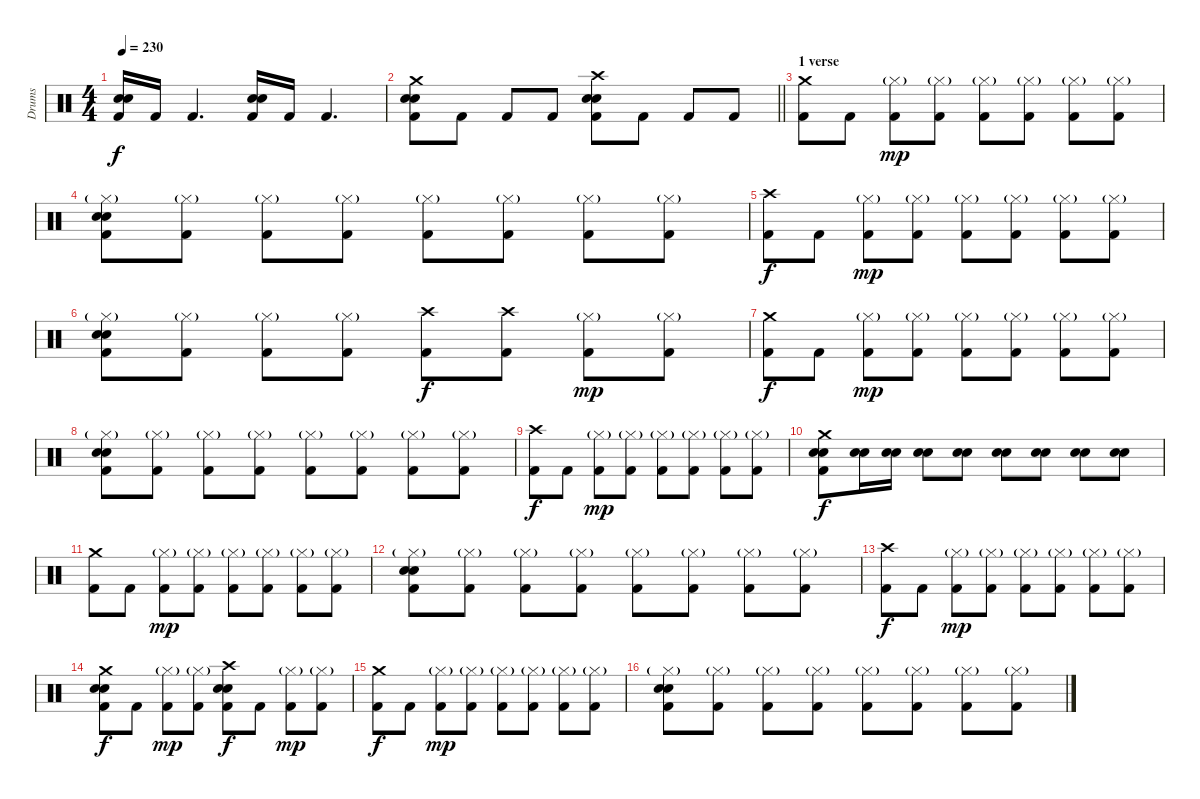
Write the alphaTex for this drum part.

\track ("Drums" "Drums") {instrument percussion}
\staff {score}
\articulation defaults
\ts (4 4)
\tempo 230
\clef neutral
\ks c
("Electric Snare (hit)" "Electric Snare (hit)" "Kick (hit) 2").16{dy f} "Kick (hit) 2".16 "Kick (hit) 2".4{d} ("Electric Snare (hit)" "Electric Snare (hit)" "Kick (hit) 2").16 "Kick (hit) 2".16 "Kick (hit) 2".4{d} |
\barLineRight lightlight
("Crash medium (hit)" "Electric Snare (hit)" "Electric Snare (hit)" "Kick (hit) 2").8 "Kick (hit) 2".8 "Kick (hit) 2".8 "Kick (hit) 2".8 ("Crash high (hit)" "Electric Snare (hit)" "Electric Snare (hit)" "Kick (hit) 2").8 "Kick (hit) 2".8 "Kick (hit) 2".8 "Kick (hit) 2".8 |
\section ("" "1 verse")
("Crash medium (hit)" "Kick (hit) 2").8 "Kick (hit) 2".8 ("Hi-Hat (closed)"{g} "Kick (hit) 2").8{dy mp} ("Hi-Hat (closed)"{g} "Kick (hit) 2").8 ("Hi-Hat (closed)"{g} "Kick (hit) 2").8 ("Hi-Hat (closed)"{g} "Kick (hit) 2").8 ("Hi-Hat (closed)"{g} "Kick (hit) 2").8 ("Hi-Hat (closed)"{g} "Kick (hit) 2").8 |
("Hi-Hat (closed)"{g} "Electric Snare (hit)" "Electric Snare (hit)" "Kick (hit) 2").8 ("Hi-Hat (closed)"{g} "Kick (hit) 2").8 ("Hi-Hat (closed)"{g} "Kick (hit) 2").8 ("Hi-Hat (closed)"{g} "Kick (hit) 2").8 ("Hi-Hat (closed)"{g} "Kick (hit) 2").8 ("Hi-Hat (closed)"{g} "Kick (hit) 2").8 ("Hi-Hat (closed)"{g} "Kick (hit) 2").8 ("Hi-Hat (closed)"{g} "Kick (hit) 2").8 |
("Crash high (hit)" "Kick (hit) 2").8{dy f} "Kick (hit) 2".8 ("Hi-Hat (closed)"{g} "Kick (hit) 2").8{dy mp} ("Hi-Hat (closed)"{g} "Kick (hit) 2").8 ("Hi-Hat (closed)"{g} "Kick (hit) 2").8 ("Hi-Hat (closed)"{g} "Kick (hit) 2").8 ("Hi-Hat (closed)"{g} "Kick (hit) 2").8 ("Hi-Hat (closed)"{g} "Kick (hit) 2").8 |
("Hi-Hat (closed)"{g} "Electric Snare (hit)" "Electric Snare (hit)" "Kick (hit) 2").8 ("Hi-Hat (closed)"{g} "Kick (hit) 2").8 ("Hi-Hat (closed)"{g} "Kick (hit) 2").8 ("Hi-Hat (closed)"{g} "Kick (hit) 2").8 ("Crash high (hit)" "Kick (hit) 2").8{dy f} ("Crash high (hit)" "Kick (hit) 2").8 ("Hi-Hat (closed)"{g} "Kick (hit) 2").8{dy mp} ("Hi-Hat (closed)"{g} "Kick (hit) 2").8 |
("Crash medium (hit)" "Kick (hit) 2").8{dy f} "Kick (hit) 2".8 ("Hi-Hat (closed)"{g} "Kick (hit) 2").8{dy mp} ("Hi-Hat (closed)"{g} "Kick (hit) 2").8 ("Hi-Hat (closed)"{g} "Kick (hit) 2").8 ("Hi-Hat (closed)"{g} "Kick (hit) 2").8 ("Hi-Hat (closed)"{g} "Kick (hit) 2").8 ("Hi-Hat (closed)"{g} "Kick (hit) 2").8 |
("Hi-Hat (closed)"{g} "Electric Snare (hit)" "Electric Snare (hit)" "Kick (hit) 2").8 ("Hi-Hat (closed)"{g} "Kick (hit) 2").8 ("Hi-Hat (closed)"{g} "Kick (hit) 2").8 ("Hi-Hat (closed)"{g} "Kick (hit) 2").8 ("Hi-Hat (closed)"{g} "Kick (hit) 2").8 ("Hi-Hat (closed)"{g} "Kick (hit) 2").8 ("Hi-Hat (closed)"{g} "Kick (hit) 2").8 ("Hi-Hat (closed)"{g} "Kick (hit) 2").8 |
("Crash high (hit)" "Kick (hit) 2").8{dy f} "Kick (hit) 2".8 ("Hi-Hat (closed)"{g} "Kick (hit) 2").8{dy mp} ("Hi-Hat (closed)"{g} "Kick (hit) 2").8 ("Hi-Hat (closed)"{g} "Kick (hit) 2").8 ("Hi-Hat (closed)"{g} "Kick (hit) 2").8 ("Hi-Hat (closed)"{g} "Kick (hit) 2").8 ("Hi-Hat (closed)"{g} "Kick (hit) 2").8 |
("Crash medium (hit)" "Electric Snare (hit)" "Electric Snare (hit)" "Kick (hit) 2").8{dy f} ("Electric Snare (hit)" "Electric Snare (hit)").16 ("Electric Snare (hit)" "Electric Snare (hit)").16 ("Electric Snare (hit)" "Electric Snare (hit)").8 ("Electric Snare (hit)" "Electric Snare (hit)").8 ("Electric Snare (hit)" "Electric Snare (hit)").8 ("Electric Snare (hit)" "Electric Snare (hit)").8 ("Electric Snare (hit)" "Electric Snare (hit)").8 ("Electric Snare (hit)" "Electric Snare (hit)").8 |
("Crash medium (hit)" "Kick (hit) 2").8 "Kick (hit) 2".8 ("Hi-Hat (closed)"{g} "Kick (hit) 2").8{dy mp} ("Hi-Hat (closed)"{g} "Kick (hit) 2").8 ("Hi-Hat (closed)"{g} "Kick (hit) 2").8 ("Hi-Hat (closed)"{g} "Kick (hit) 2").8 ("Hi-Hat (closed)"{g} "Kick (hit) 2").8 ("Hi-Hat (closed)"{g} "Kick (hit) 2").8 |
("Hi-Hat (closed)"{g} "Electric Snare (hit)" "Electric Snare (hit)" "Kick (hit) 2").8 ("Hi-Hat (closed)"{g} "Kick (hit) 2").8 ("Hi-Hat (closed)"{g} "Kick (hit) 2").8 ("Hi-Hat (closed)"{g} "Kick (hit) 2").8 ("Hi-Hat (closed)"{g} "Kick (hit) 2").8 ("Hi-Hat (closed)"{g} "Kick (hit) 2").8 ("Hi-Hat (closed)"{g} "Kick (hit) 2").8 ("Hi-Hat (closed)"{g} "Kick (hit) 2").8 |
("Crash high (hit)" "Kick (hit) 2").8{dy f} "Kick (hit) 2".8 ("Hi-Hat (closed)"{g} "Kick (hit) 2").8{dy mp} ("Hi-Hat (closed)"{g} "Kick (hit) 2").8 ("Hi-Hat (closed)"{g} "Kick (hit) 2").8 ("Hi-Hat (closed)"{g} "Kick (hit) 2").8 ("Hi-Hat (closed)"{g} "Kick (hit) 2").8 ("Hi-Hat (closed)"{g} "Kick (hit) 2").8 |
("Crash medium (hit)" "Electric Snare (hit)" "Electric Snare (hit)" "Kick (hit) 2").8{dy f} "Kick (hit) 2".8 ("Hi-Hat (closed)"{g} "Kick (hit) 2").8{dy mp} ("Hi-Hat (closed)"{g} "Kick (hit) 2").8 ("Crash high (hit)" "Electric Snare (hit)" "Electric Snare (hit)" "Kick (hit) 2").8{dy f} "Kick (hit) 2".8 ("Hi-Hat (closed)"{g} "Kick (hit) 2").8{dy mp} ("Hi-Hat (closed)"{g} "Kick (hit) 2").8 |
("Crash medium (hit)" "Kick (hit) 2").8{dy f} "Kick (hit) 2".8 ("Hi-Hat (closed)"{g} "Kick (hit) 2").8{dy mp} ("Hi-Hat (closed)"{g} "Kick (hit) 2").8 ("Hi-Hat (closed)"{g} "Kick (hit) 2").8 ("Hi-Hat (closed)"{g} "Kick (hit) 2").8 ("Hi-Hat (closed)"{g} "Kick (hit) 2").8 ("Hi-Hat (closed)"{g} "Kick (hit) 2").8 |
("Hi-Hat (closed)"{g} "Electric Snare (hit)" "Electric Snare (hit)" "Kick (hit) 2").8 ("Hi-Hat (closed)"{g} "Kick (hit) 2").8 ("Hi-Hat (closed)"{g} "Kick (hit) 2").8 ("Hi-Hat (closed)"{g} "Kick (hit) 2").8 ("Hi-Hat (closed)"{g} "Kick (hit) 2").8 ("Hi-Hat (closed)"{g} "Kick (hit) 2").8 ("Hi-Hat (closed)"{g} "Kick (hit) 2").8 ("Hi-Hat (closed)"{g} "Kick (hit) 2").8
